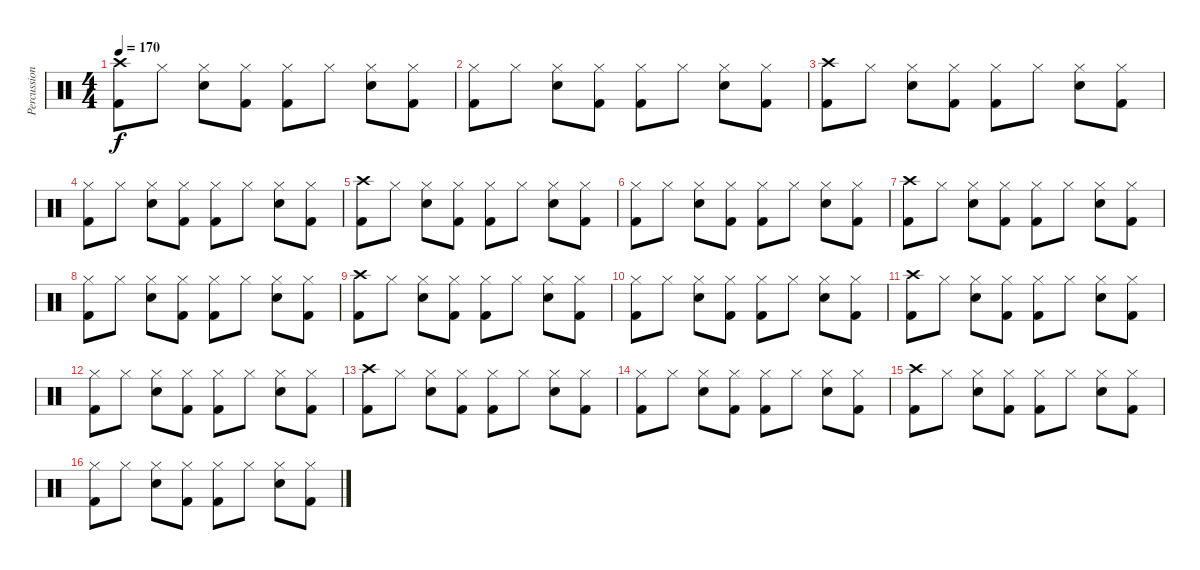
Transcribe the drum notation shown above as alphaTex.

\track ("Percussion" "Percussion") {instrument percussion}
\staff {score}
\articulation defaults
\ts (4 4)
\tempo 170
\clef neutral
\ks c
("Crash high (hit)" "Kick (hit) 2").8{dy f} "Hi-Hat (closed)".8 ("Hi-Hat (closed)" "Snare (hit) 2").8 ("Hi-Hat (closed)" "Kick (hit) 2").8 ("Hi-Hat (closed)" "Kick (hit) 2").8 "Hi-Hat (closed)".8 ("Hi-Hat (closed)" "Snare (hit) 2").8 ("Hi-Hat (closed)" "Kick (hit) 2").8 |
("Hi-Hat (closed)" "Kick (hit) 2").8 "Hi-Hat (closed)".8 ("Hi-Hat (closed)" "Snare (hit) 2").8 ("Hi-Hat (closed)" "Kick (hit) 2").8 ("Hi-Hat (closed)" "Kick (hit) 2").8 "Hi-Hat (closed)".8 ("Hi-Hat (closed)" "Snare (hit) 2").8 ("Hi-Hat (closed)" "Kick (hit) 2").8 |
("Crash high (hit)" "Kick (hit) 2").8 "Hi-Hat (closed)".8 ("Hi-Hat (closed)" "Snare (hit) 2").8 ("Hi-Hat (closed)" "Kick (hit) 2").8 ("Hi-Hat (closed)" "Kick (hit) 2").8 "Hi-Hat (closed)".8 ("Hi-Hat (closed)" "Snare (hit) 2").8 ("Hi-Hat (closed)" "Kick (hit) 2").8 |
("Hi-Hat (closed)" "Kick (hit) 2").8 "Hi-Hat (closed)".8 ("Hi-Hat (closed)" "Snare (hit) 2").8 ("Hi-Hat (closed)" "Kick (hit) 2").8 ("Hi-Hat (closed)" "Kick (hit) 2").8 "Hi-Hat (closed)".8 ("Hi-Hat (closed)" "Snare (hit) 2").8 ("Hi-Hat (closed)" "Kick (hit) 2").8 |
("Crash high (hit)" "Kick (hit) 2").8 "Hi-Hat (closed)".8 ("Hi-Hat (closed)" "Snare (hit) 2").8 ("Hi-Hat (closed)" "Kick (hit) 2").8 ("Hi-Hat (closed)" "Kick (hit) 2").8 "Hi-Hat (closed)".8 ("Hi-Hat (closed)" "Snare (hit) 2").8 ("Hi-Hat (closed)" "Kick (hit) 2").8 |
("Hi-Hat (closed)" "Kick (hit) 2").8 "Hi-Hat (closed)".8 ("Hi-Hat (closed)" "Snare (hit) 2").8 ("Hi-Hat (closed)" "Kick (hit) 2").8 ("Hi-Hat (closed)" "Kick (hit) 2").8 "Hi-Hat (closed)".8 ("Hi-Hat (closed)" "Snare (hit) 2").8 ("Hi-Hat (closed)" "Kick (hit) 2").8 |
("Crash high (hit)" "Kick (hit) 2").8 "Hi-Hat (closed)".8 ("Hi-Hat (closed)" "Snare (hit) 2").8 ("Hi-Hat (closed)" "Kick (hit) 2").8 ("Hi-Hat (closed)" "Kick (hit) 2").8 "Hi-Hat (closed)".8 ("Hi-Hat (closed)" "Snare (hit) 2").8 ("Hi-Hat (closed)" "Kick (hit) 2").8 |
("Hi-Hat (closed)" "Kick (hit) 2").8 "Hi-Hat (closed)".8 ("Hi-Hat (closed)" "Snare (hit) 2").8 ("Hi-Hat (closed)" "Kick (hit) 2").8 ("Hi-Hat (closed)" "Kick (hit) 2").8 "Hi-Hat (closed)".8 ("Hi-Hat (closed)" "Snare (hit) 2").8 ("Hi-Hat (closed)" "Kick (hit) 2").8 |
("Crash high (hit)" "Kick (hit) 2").8 "Hi-Hat (closed)".8 ("Hi-Hat (closed)" "Snare (hit) 2").8 ("Hi-Hat (closed)" "Kick (hit) 2").8 ("Hi-Hat (closed)" "Kick (hit) 2").8 "Hi-Hat (closed)".8 ("Hi-Hat (closed)" "Snare (hit) 2").8 ("Hi-Hat (closed)" "Kick (hit) 2").8 |
("Hi-Hat (closed)" "Kick (hit) 2").8 "Hi-Hat (closed)".8 ("Hi-Hat (closed)" "Snare (hit) 2").8 ("Hi-Hat (closed)" "Kick (hit) 2").8 ("Hi-Hat (closed)" "Kick (hit) 2").8 "Hi-Hat (closed)".8 ("Hi-Hat (closed)" "Snare (hit) 2").8 ("Hi-Hat (closed)" "Kick (hit) 2").8 |
("Crash high (hit)" "Kick (hit) 2").8 "Hi-Hat (closed)".8 ("Hi-Hat (closed)" "Snare (hit) 2").8 ("Hi-Hat (closed)" "Kick (hit) 2").8 ("Hi-Hat (closed)" "Kick (hit) 2").8 "Hi-Hat (closed)".8 ("Hi-Hat (closed)" "Snare (hit) 2").8 ("Hi-Hat (closed)" "Kick (hit) 2").8 |
("Hi-Hat (closed)" "Kick (hit) 2").8 "Hi-Hat (closed)".8 ("Hi-Hat (closed)" "Snare (hit) 2").8 ("Hi-Hat (closed)" "Kick (hit) 2").8 ("Hi-Hat (closed)" "Kick (hit) 2").8 "Hi-Hat (closed)".8 ("Hi-Hat (closed)" "Snare (hit) 2").8 ("Hi-Hat (closed)" "Kick (hit) 2").8 |
("Crash high (hit)" "Kick (hit) 2").8 "Hi-Hat (closed)".8 ("Hi-Hat (closed)" "Snare (hit) 2").8 ("Hi-Hat (closed)" "Kick (hit) 2").8 ("Hi-Hat (closed)" "Kick (hit) 2").8 "Hi-Hat (closed)".8 ("Hi-Hat (closed)" "Snare (hit) 2").8 ("Hi-Hat (closed)" "Kick (hit) 2").8 |
("Hi-Hat (closed)" "Kick (hit) 2").8 "Hi-Hat (closed)".8 ("Hi-Hat (closed)" "Snare (hit) 2").8 ("Hi-Hat (closed)" "Kick (hit) 2").8 ("Hi-Hat (closed)" "Kick (hit) 2").8 "Hi-Hat (closed)".8 ("Hi-Hat (closed)" "Snare (hit) 2").8 ("Hi-Hat (closed)" "Kick (hit) 2").8 |
("Crash high (hit)" "Kick (hit) 2").8 "Hi-Hat (closed)".8 ("Hi-Hat (closed)" "Snare (hit) 2").8 ("Hi-Hat (closed)" "Kick (hit) 2").8 ("Hi-Hat (closed)" "Kick (hit) 2").8 "Hi-Hat (closed)".8 ("Hi-Hat (closed)" "Snare (hit) 2").8 ("Hi-Hat (closed)" "Kick (hit) 2").8 |
("Hi-Hat (closed)" "Kick (hit) 2").8 "Hi-Hat (closed)".8 ("Hi-Hat (closed)" "Snare (hit) 2").8 ("Hi-Hat (closed)" "Kick (hit) 2").8 ("Hi-Hat (closed)" "Kick (hit) 2").8 "Hi-Hat (closed)".8 ("Hi-Hat (closed)" "Snare (hit) 2").8 ("Hi-Hat (closed)" "Kick (hit) 2").8
